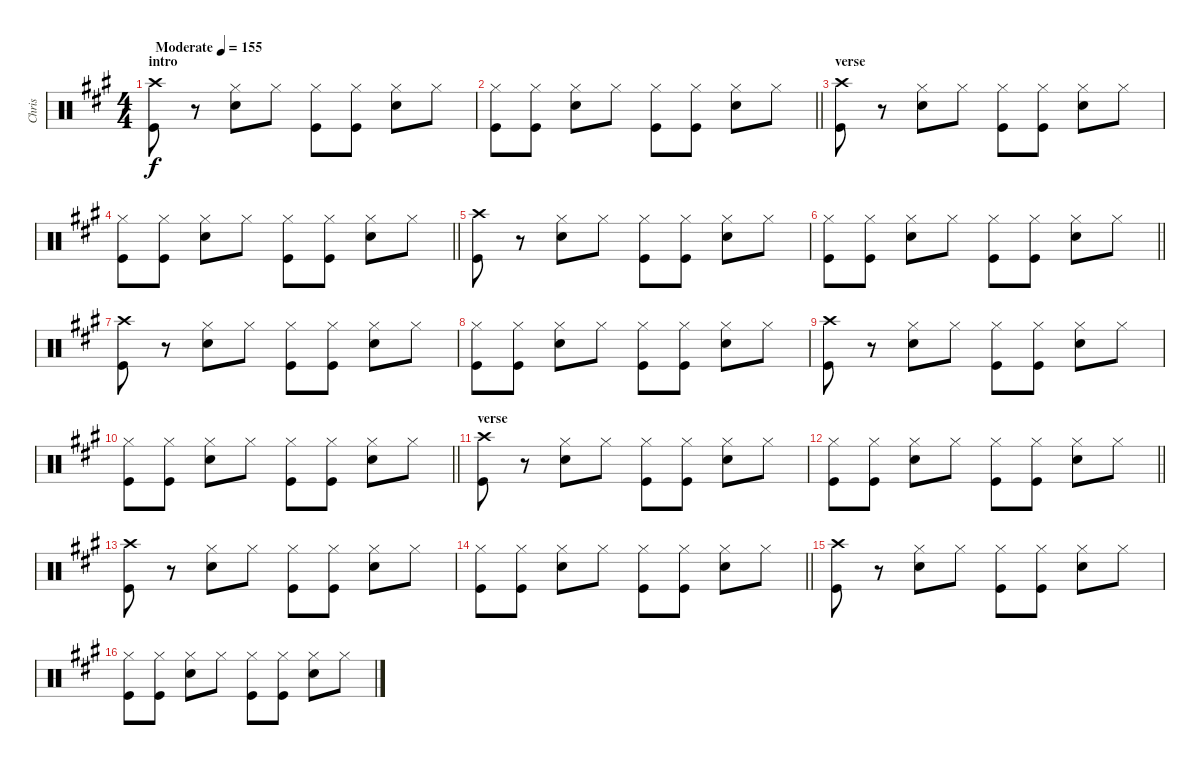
\track ("Chris" "Chris") {instrument percussion}
\staff {score}
\articulation defaults
\ts (4 4)
\section ("" "intro")
\tempo (155 "Moderate")
\clef neutral
\ks a
("Crash high (hit)" "Kick (hit)").8{dy f} r.8 ("Hi-Hat (closed)" "Snare (hit) 2").8 "Hi-Hat (closed)".8 ("Hi-Hat (closed)" "Kick (hit)").8 ("Hi-Hat (closed)" "Kick (hit)").8 ("Hi-Hat (closed)" "Snare (hit) 2").8 "Hi-Hat (closed)".8 |
\barLineRight lightlight
("Hi-Hat (closed)" "Kick (hit)").8 ("Hi-Hat (closed)" "Kick (hit)").8 ("Hi-Hat (closed)" "Snare (hit) 2").8 "Hi-Hat (closed)".8 ("Hi-Hat (closed)" "Kick (hit)").8 ("Hi-Hat (closed)" "Kick (hit)").8 ("Hi-Hat (closed)" "Snare (hit) 2").8 "Hi-Hat (closed)".8 |
\section ("" "verse")
("Crash high (hit)" "Kick (hit)").8 r.8 ("Hi-Hat (closed)" "Snare (hit) 2").8 "Hi-Hat (closed)".8 ("Hi-Hat (closed)" "Kick (hit)").8 ("Hi-Hat (closed)" "Kick (hit)").8 ("Hi-Hat (closed)" "Snare (hit) 2").8 "Hi-Hat (closed)".8 |
\barLineRight lightlight
("Hi-Hat (closed)" "Kick (hit)").8 ("Hi-Hat (closed)" "Kick (hit)").8 ("Hi-Hat (closed)" "Snare (hit) 2").8 "Hi-Hat (closed)".8 ("Hi-Hat (closed)" "Kick (hit)").8 ("Hi-Hat (closed)" "Kick (hit)").8 ("Hi-Hat (closed)" "Snare (hit) 2").8 "Hi-Hat (closed)".8 |
("Crash high (hit)" "Kick (hit)").8 r.8 ("Hi-Hat (closed)" "Snare (hit) 2").8 "Hi-Hat (closed)".8 ("Hi-Hat (closed)" "Kick (hit)").8 ("Hi-Hat (closed)" "Kick (hit)").8 ("Hi-Hat (closed)" "Snare (hit) 2").8 "Hi-Hat (closed)".8 |
\barLineRight lightlight
("Hi-Hat (closed)" "Kick (hit)").8 ("Hi-Hat (closed)" "Kick (hit)").8 ("Hi-Hat (closed)" "Snare (hit) 2").8 "Hi-Hat (closed)".8 ("Hi-Hat (closed)" "Kick (hit)").8 ("Hi-Hat (closed)" "Kick (hit)").8 ("Hi-Hat (closed)" "Snare (hit) 2").8 "Hi-Hat (closed)".8 |
("Crash high (hit)" "Kick (hit)").8 r.8 ("Hi-Hat (closed)" "Snare (hit) 2").8 "Hi-Hat (closed)".8 ("Hi-Hat (closed)" "Kick (hit)").8 ("Hi-Hat (closed)" "Kick (hit)").8 ("Hi-Hat (closed)" "Snare (hit) 2").8 "Hi-Hat (closed)".8 |
("Hi-Hat (closed)" "Kick (hit)").8 ("Hi-Hat (closed)" "Kick (hit)").8 ("Hi-Hat (closed)" "Snare (hit) 2").8 "Hi-Hat (closed)".8 ("Hi-Hat (closed)" "Kick (hit)").8 ("Hi-Hat (closed)" "Kick (hit)").8 ("Hi-Hat (closed)" "Snare (hit) 2").8 "Hi-Hat (closed)".8 |
("Crash high (hit)" "Kick (hit)").8 r.8 ("Hi-Hat (closed)" "Snare (hit) 2").8 "Hi-Hat (closed)".8 ("Hi-Hat (closed)" "Kick (hit)").8 ("Hi-Hat (closed)" "Kick (hit)").8 ("Hi-Hat (closed)" "Snare (hit) 2").8 "Hi-Hat (closed)".8 |
\barLineRight lightlight
("Hi-Hat (closed)" "Kick (hit)").8 ("Hi-Hat (closed)" "Kick (hit)").8 ("Hi-Hat (closed)" "Snare (hit) 2").8 "Hi-Hat (closed)".8 ("Hi-Hat (closed)" "Kick (hit)").8 ("Hi-Hat (closed)" "Kick (hit)").8 ("Hi-Hat (closed)" "Snare (hit) 2").8 "Hi-Hat (closed)".8 |
\section ("" "verse")
("Crash high (hit)" "Kick (hit)").8 r.8 ("Hi-Hat (closed)" "Snare (hit) 2").8 "Hi-Hat (closed)".8 ("Hi-Hat (closed)" "Kick (hit)").8 ("Hi-Hat (closed)" "Kick (hit)").8 ("Hi-Hat (closed)" "Snare (hit) 2").8 "Hi-Hat (closed)".8 |
\barLineRight lightlight
("Hi-Hat (closed)" "Kick (hit)").8 ("Hi-Hat (closed)" "Kick (hit)").8 ("Hi-Hat (closed)" "Snare (hit) 2").8 "Hi-Hat (closed)".8 ("Hi-Hat (closed)" "Kick (hit)").8 ("Hi-Hat (closed)" "Kick (hit)").8 ("Hi-Hat (closed)" "Snare (hit) 2").8 "Hi-Hat (closed)".8 |
("Crash high (hit)" "Kick (hit)").8 r.8 ("Hi-Hat (closed)" "Snare (hit) 2").8 "Hi-Hat (closed)".8 ("Hi-Hat (closed)" "Kick (hit)").8 ("Hi-Hat (closed)" "Kick (hit)").8 ("Hi-Hat (closed)" "Snare (hit) 2").8 "Hi-Hat (closed)".8 |
\barLineRight lightlight
("Hi-Hat (closed)" "Kick (hit)").8 ("Hi-Hat (closed)" "Kick (hit)").8 ("Hi-Hat (closed)" "Snare (hit) 2").8 "Hi-Hat (closed)".8 ("Hi-Hat (closed)" "Kick (hit)").8 ("Hi-Hat (closed)" "Kick (hit)").8 ("Hi-Hat (closed)" "Snare (hit) 2").8 "Hi-Hat (closed)".8 |
("Crash high (hit)" "Kick (hit)").8 r.8 ("Hi-Hat (closed)" "Snare (hit) 2").8 "Hi-Hat (closed)".8 ("Hi-Hat (closed)" "Kick (hit)").8 ("Hi-Hat (closed)" "Kick (hit)").8 ("Hi-Hat (closed)" "Snare (hit) 2").8 "Hi-Hat (closed)".8 |
("Hi-Hat (closed)" "Kick (hit)").8 ("Hi-Hat (closed)" "Kick (hit)").8 ("Hi-Hat (closed)" "Snare (hit) 2").8 "Hi-Hat (closed)".8 ("Hi-Hat (closed)" "Kick (hit)").8 ("Hi-Hat (closed)" "Kick (hit)").8 ("Hi-Hat (closed)" "Snare (hit) 2").8 "Hi-Hat (closed)".8
